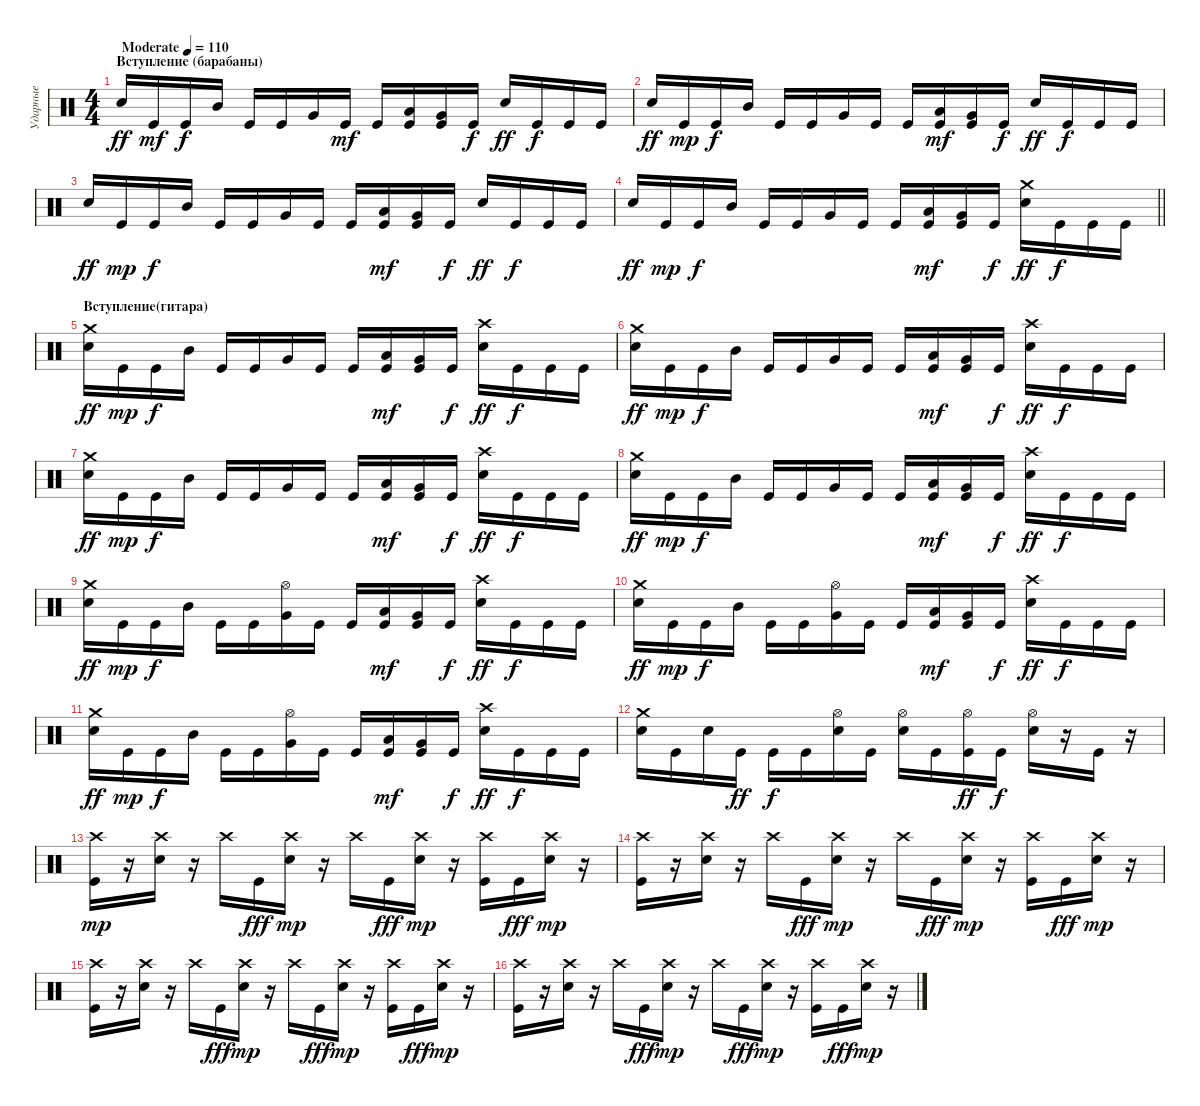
\track ("Ударные" "Ударные") {instrument percussion}
\staff {score}
\articulation defaults
\ts (4 4)
\section ("" "Вступление (барабаны)")
\tempo (110 "Moderate")
\clef neutral
\ks c "Electric Snare (hit)".16{dy ff} "Kick (hit)".16{dy mf} "Kick (hit)".16{dy f} "Mid Tom (hit)".16 "Kick (hit)".16 "Kick (hit)".16 "Very Low Tom (hit)".16 "Kick (hit)".16{dy mf} "Kick (hit)".16
("Low Tom (hit)" "Kick (hit)").16 ("Very Low Tom (hit)" "Kick (hit)").16 "Kick (hit)".16{dy f} "Electric Snare (hit)".16{dy ff} "Kick (hit)".16{dy f} "Kick (hit)".16 "Kick (hit)".16 |
"Electric Snare (hit)".16{dy ff} "Kick (hit)".16{dy mp} "Kick (hit)".16{dy f} "Mid Tom (hit)".16 "Kick (hit)".16 "Kick (hit)".16 "Very Low Tom (hit)".16 "Kick (hit)".16 "Kick (hit)".16 ("Low Tom (hit)" "Kick (hit)").16{dy mf} ("Very Low Tom (hit)" "Kick (hit)").16 "Kick (hit)".16{dy f} "Electric Snare (hit)".16{dy ff} "Kick (hit)".16{dy f} "Kick (hit)".16 "Kick (hit)".16 |
"Electric Snare (hit)".16{dy ff} "Kick (hit)".16{dy mp} "Kick (hit)".16{dy f} "Mid Tom (hit)".16 "Kick (hit)".16 "Kick (hit)".16 "Very Low Tom (hit)".16 "Kick (hit)".16 "Kick (hit)".16 ("Low Tom (hit)" "Kick (hit)").16{dy mf} ("Very Low Tom (hit)" "Kick (hit)").16 "Kick (hit)".16{dy f} "Electric Snare (hit)".16{dy ff} "Kick (hit)".16{dy f} "Kick (hit)".16 "Kick (hit)".16 |
\barLineRight lightlight "Electric Snare (hit)".16{dy ff} "Kick (hit)".16{dy mp} "Kick (hit)".16{dy f} "Mid Tom (hit)".16 "Kick (hit)".16 "Kick (hit)".16 "Very Low Tom (hit)".16 "Kick (hit)".16 "Kick (hit)".16
("Low Tom (hit)" "Kick (hit)").16{dy mf} ("Very Low Tom (hit)" "Kick (hit)").16 "Kick (hit)".16{dy f} ("Electric Snare (hit)" "Crash medium (hit)").16{dy ff} "Kick (hit)".16{dy f} "Kick (hit)".16 "Kick (hit)".16 |
\section ("" "Вступление(гитара)")
("Electric Snare (hit)" "Crash medium (hit)").16{dy ff} "Kick (hit)".16{dy mp} "Kick (hit)".16{dy f} "Mid Tom (hit)".16 "Kick (hit)".16 "Kick (hit)".16 "Very Low Tom (hit)".16 "Kick (hit)".16 "Kick (hit)".16 ("Low Tom (hit)" "Kick (hit)").16{dy mf} ("Very Low Tom (hit)" "Kick (hit)").16 "Kick (hit)".16{dy f} ("Electric Snare (hit)" "Crash high (hit)").16{dy ff} "Kick (hit)".16{dy f} "Kick (hit)".16 "Kick (hit)".16 |
("Electric Snare (hit)" "Crash medium (hit)").16{dy ff} "Kick (hit)".16{dy mp} "Kick (hit)".16{dy f} "Mid Tom (hit)".16 "Kick (hit)".16 "Kick (hit)".16 "Very Low Tom (hit)".16 "Kick (hit)".16 "Kick (hit)".16 ("Low Tom (hit)" "Kick (hit)").16{dy mf} ("Very Low Tom (hit)" "Kick (hit)").16 "Kick (hit)".16{dy f} ("Electric Snare (hit)" "Crash high (hit)").16{dy ff} "Kick (hit)".16{dy f} "Kick (hit)".16 "Kick (hit)".16 |
("Electric Snare (hit)" "Crash medium (hit)").16{dy ff} "Kick (hit)".16{dy mp} "Kick (hit)".16{dy f} "Mid Tom (hit)".16 "Kick (hit)".16 "Kick (hit)".16 "Very Low Tom (hit)".16 "Kick (hit)".16 "Kick (hit)".16 ("Low Tom (hit)" "Kick (hit)").16{dy mf} ("Very Low Tom (hit)" "Kick (hit)").16 "Kick (hit)".16{dy f} ("Electric Snare (hit)" "Crash high (hit)").16{dy ff} "Kick (hit)".16{dy f} "Kick (hit)".16 "Kick (hit)".16 |
("Electric Snare (hit)" "Crash medium (hit)").16{dy ff} "Kick (hit)".16{dy mp} "Kick (hit)".16{dy f} "Mid Tom (hit)".16 "Kick (hit)".16 "Kick (hit)".16 "Very Low Tom (hit)".16 "Kick (hit)".16 "Kick (hit)".16 ("Low Tom (hit)" "Kick (hit)").16{dy mf} ("Very Low Tom (hit)" "Kick (hit)").16 "Kick (hit)".16{dy f} ("Electric Snare (hit)" "Crash high (hit)").16{dy ff} "Kick (hit)".16{dy f} "Kick (hit)".16 "Kick (hit)".16 |
("Electric Snare (hit)" "Crash medium (hit)").16{dy ff} "Kick (hit)".16{dy mp} "Kick (hit)".16{dy f} "Mid Tom (hit)".16 "Kick (hit)".16 "Kick (hit)".16 ("Very Low Tom (hit)" "Hi-Hat (open)").16 "Kick (hit)".16 "Kick (hit)".16 ("Low Tom (hit)" "Kick (hit)").16{dy mf} ("Very Low Tom (hit)" "Kick (hit)").16 "Kick (hit)".16{dy f} ("Electric Snare (hit)" "Crash high (hit)").16{dy ff} "Kick (hit)".16{dy f} "Kick (hit)".16 "Kick (hit)".16 |
("Electric Snare (hit)" "Crash medium (hit)").16{dy ff} "Kick (hit)".16{dy mp} "Kick (hit)".16{dy f} "Mid Tom (hit)".16 "Kick (hit)".16 "Kick (hit)".16 ("Very Low Tom (hit)" "Hi-Hat (open)").16 "Kick (hit)".16 "Kick (hit)".16 ("Low Tom (hit)" "Kick (hit)").16{dy mf} ("Very Low Tom (hit)" "Kick (hit)").16 "Kick (hit)".16{dy f} ("Electric Snare (hit)" "Crash high (hit)").16{dy ff} "Kick (hit)".16{dy f} "Kick (hit)".16 "Kick (hit)".16 |
("Electric Snare (hit)" "Crash medium (hit)").16{dy ff} "Kick (hit)".16{dy mp} "Kick (hit)".16{dy f} "Mid Tom (hit)".16 "Kick (hit)".16 "Kick (hit)".16 ("Very Low Tom (hit)" "Hi-Hat (open)").16 "Kick (hit)".16 "Kick (hit)".16 ("Low Tom (hit)" "Kick (hit)").16{dy mf} ("Very Low Tom (hit)" "Kick (hit)").16 "Kick (hit)".16{dy f} ("Electric Snare (hit)" "Crash high (hit)").16{dy ff} "Kick (hit)".16{dy f} "Kick (hit)".16 "Kick (hit)".16 |
("Electric Snare (hit)" "Crash medium (hit)").16 "Kick (hit)".16 "Electric Snare (hit)".16 "Kick (hit)".16{dy ff} "Kick (hit)".16{dy f} "Kick (hit)".16 ("Electric Snare (hit)" "Hi-Hat (open)").16 "Kick (hit)".16 ("Electric Snare (hit)" "Hi-Hat (open)").16 "Kick (hit)".16 ("Kick (hit)" "Hi-Hat (open)").16{dy ff} "Kick (hit)".16{dy f} ("Electric Snare (hit)" "Hi-Hat (open)").16 r.16 "Kick (hit)".16 r.16 |
("Kick (hit)" "Crash high (hit)").16{dy mp} r.16 ("Electric Snare (hit)" "Crash high (hit)").16 r.16 "Crash high (hit)".16 "Kick (hit)".16{dy fff} ("Electric Snare (hit)" "Crash high (hit)").16{dy mp} r.16 "Crash high (hit)".16 "Kick (hit)".16{dy fff} ("Electric Snare (hit)" "Crash high (hit)").16{dy mp} r.16 ("Kick (hit)" "Crash high (hit)").16 "Kick (hit)".16{dy fff} ("Electric Snare (hit)" "Crash high (hit)").16{dy mp} r.16 |
("Kick (hit)" "Crash high (hit)").16 r.16 ("Electric Snare (hit)" "Crash high (hit)").16 r.16 "Crash high (hit)".16 "Kick (hit)".16{dy fff} ("Electric Snare (hit)" "Crash high (hit)").16{dy mp} r.16 "Crash high (hit)".16 "Kick (hit)".16{dy fff} ("Electric Snare (hit)" "Crash high (hit)").16{dy mp} r.16 ("Kick (hit)" "Crash high (hit)").16 "Kick (hit)".16{dy fff} ("Electric Snare (hit)" "Crash high (hit)").16{dy mp} r.16 |
("Kick (hit)" "Crash high (hit)").16 r.16 ("Electric Snare (hit)" "Crash high (hit)").16 r.16 "Crash high (hit)".16 "Kick (hit)".16{dy fff} ("Electric Snare (hit)" "Crash high (hit)").16{dy mp} r.16 "Crash high (hit)".16 "Kick (hit)".16{dy fff} ("Electric Snare (hit)" "Crash high (hit)").16{dy mp} r.16 ("Kick (hit)" "Crash high (hit)").16 "Kick (hit)".16{dy fff} ("Electric Snare (hit)" "Crash high (hit)").16{dy mp} r.16 |
("Kick (hit)" "Crash high (hit)").16 r.16 ("Electric Snare (hit)" "Crash high (hit)").16 r.16 "Crash high (hit)".16 "Kick (hit)".16{dy fff} ("Electric Snare (hit)" "Crash high (hit)").16{dy mp} r.16 "Crash high (hit)".16 "Kick (hit)".16{dy fff} ("Electric Snare (hit)" "Crash high (hit)").16{dy mp} r.16 ("Kick (hit)" "Crash high (hit)").16 "Kick (hit)".16{dy fff} ("Electric Snare (hit)" "Crash high (hit)").16{dy mp} r.16
